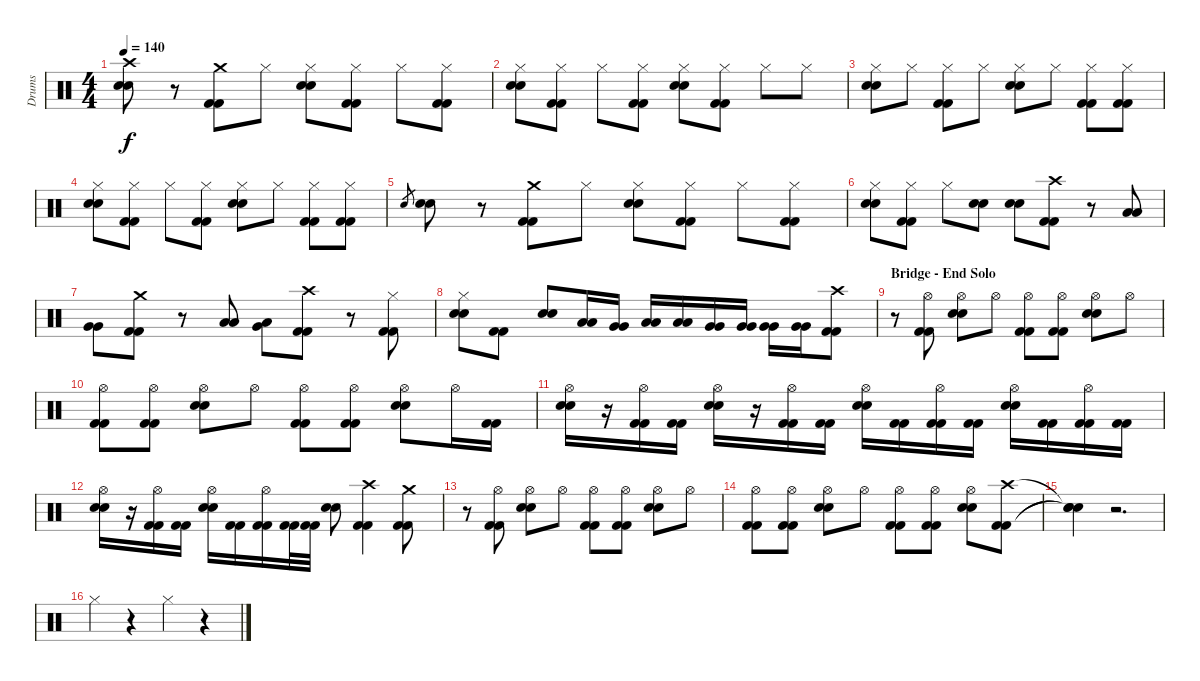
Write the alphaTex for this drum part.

\track ("Drums" "Drums") {instrument percussion}
\staff {score}
\articulation defaults
\ts (4 4)
\tempo 140
\clef neutral
\ks c
("Crash high (hit)" "Snare (hit) 2" "Snare (hit) 2").8{dy f} r.8 ("Crash medium (hit)" "Kick (hit) 2" "Kick (hit) 2").8 "Hi-Hat (closed)".8 ("Hi-Hat (closed)" "Snare (hit) 2" "Snare (hit) 2").8 ("Hi-Hat (closed)" "Kick (hit) 2" "Kick (hit) 2").8 "Hi-Hat (closed)".8 ("Hi-Hat (closed)" "Kick (hit) 2" "Kick (hit) 2").8 |
("Hi-Hat (closed)" "Snare (hit) 2" "Snare (hit) 2").8 ("Hi-Hat (closed)" "Kick (hit) 2" "Kick (hit) 2").8 "Hi-Hat (closed)".8 ("Hi-Hat (closed)" "Kick (hit) 2" "Kick (hit) 2").8 ("Hi-Hat (closed)" "Snare (hit) 2" "Snare (hit) 2").8 ("Hi-Hat (closed)" "Kick (hit) 2" "Kick (hit) 2").8 "Hi-Hat (closed)".8 "Hi-Hat (closed)".8 |
("Hi-Hat (closed)" "Snare (hit) 2" "Snare (hit) 2").8 "Hi-Hat (closed)".8 ("Hi-Hat (closed)" "Kick (hit) 2" "Kick (hit) 2").8 "Hi-Hat (closed)".8 ("Hi-Hat (closed)" "Snare (hit) 2" "Snare (hit) 2").8 "Hi-Hat (closed)".8 ("Hi-Hat (closed)" "Kick (hit) 2" "Kick (hit) 2").8 ("Hi-Hat (closed)" "Kick (hit) 2" "Kick (hit) 2").8 |
("Hi-Hat (closed)" "Snare (hit) 2" "Snare (hit) 2").8 ("Hi-Hat (closed)" "Kick (hit) 2" "Kick (hit) 2").8 "Hi-Hat (closed)".8 ("Hi-Hat (closed)" "Kick (hit) 2" "Kick (hit) 2").8 ("Hi-Hat (closed)" "Snare (hit) 2" "Snare (hit) 2").8 "Hi-Hat (closed)".8 ("Hi-Hat (closed)" "Kick (hit) 2" "Kick (hit) 2").8 ("Hi-Hat (closed)" "Kick (hit) 2" "Kick (hit) 2").8 |
"Snare (hit) 2".8{gr} ("Snare (hit) 2" "Snare (hit) 2").8 r.8 ("Crash medium (hit)" "Kick (hit) 2" "Kick (hit) 2").8 "Hi-Hat (closed)".8 ("Hi-Hat (closed)" "Snare (hit) 2" "Snare (hit) 2").8 ("Hi-Hat (closed)" "Kick (hit) 2" "Kick (hit) 2").8 "Hi-Hat (closed)".8 ("Hi-Hat (closed)" "Kick (hit) 2" "Kick (hit) 2").8 |
("Hi-Hat (closed)" "Snare (hit) 2" "Snare (hit) 2").8 ("Hi-Hat (closed)" "Kick (hit) 2" "Kick (hit) 2").8 "Hi-Hat (closed)".8 ("Snare (hit) 2" "Snare (hit) 2").8 ("Snare (hit) 2" "Snare (hit) 2").8 ("Crash high (hit)" "Kick (hit) 2" "Kick (hit) 2").8 r.8 ("Low Tom (hit)" "Low Tom (hit)").8 |
("Very Low Tom (hit)" "Very Low Tom (hit)").8 ("Crash medium (hit)" "Kick (hit) 2" "Kick (hit) 2").8 r.8 ("Low Tom (hit)" "Low Tom (hit)").8 ("Very Low Tom (hit)" "Low Tom (hit)").8 ("Crash high (hit)" "Kick (hit) 2" "Kick (hit) 2").8 r.8 ("Hi-Hat (closed)" "Kick (hit) 2" "Kick (hit) 2").8 |
("Hi-Hat (closed)" "Snare (hit) 2" "Snare (hit) 2").8 ("Kick (hit) 2" "Kick (hit) 2").8 ("Snare (hit) 2" "Snare (hit) 2").8 ("Low Tom (hit)" "Low Tom (hit)").16 ("Very Low Tom (hit)" "Very Low Tom (hit)").16 ("Low Tom (hit)" "Low Tom (hit)").16 ("Low Tom (hit)" "Low Tom (hit)").16 ("Very Low Tom (hit)" "Very Low Tom (hit)").16 ("Very Low Tom (hit)" "Very Low Tom (hit)").16 ("Very Low Tom (hit)" "Very Low Tom (hit)").16 ("Very Low Tom (hit)" "Very Low Tom (hit)").16 ("Crash high (hit)" "Kick (hit) 2" "Kick (hit) 2").8 |
\section ("" "Bridge - End Solo")
r.8 ("Hi-Hat (open)" "Kick (hit) 2" "Kick (hit) 2").8 ("Hi-Hat (open)" "Snare (hit) 2" "Snare (hit) 2").8 "Hi-Hat (open)".8 ("Hi-Hat (open)" "Kick (hit) 2" "Kick (hit) 2").8 ("Hi-Hat (open)" "Kick (hit) 2" "Kick (hit) 2").8 ("Hi-Hat (open)" "Snare (hit) 2" "Snare (hit) 2").8 "Hi-Hat (open)".8 |
("Hi-Hat (open)" "Kick (hit) 2" "Kick (hit) 2").8 ("Hi-Hat (open)" "Kick (hit) 2" "Kick (hit) 2").8 ("Hi-Hat (open)" "Snare (hit) 2" "Snare (hit) 2").8 "Hi-Hat (open)".8 ("Hi-Hat (open)" "Kick (hit) 2" "Kick (hit) 2").8 ("Hi-Hat (open)" "Kick (hit) 2" "Kick (hit) 2").8 ("Hi-Hat (open)" "Snare (hit) 2" "Snare (hit) 2").8 "Hi-Hat (open)".16 ("Kick (hit) 2" "Kick (hit) 2").16 |
("Hi-Hat (open)" "Snare (hit) 2" "Snare (hit) 2").16 r.16 ("Hi-Hat (open)" "Kick (hit) 2" "Kick (hit) 2").16 ("Kick (hit) 2" "Kick (hit) 2").16 ("Hi-Hat (open)" "Snare (hit) 2" "Snare (hit) 2").16 r.16 ("Hi-Hat (open)" "Kick (hit) 2" "Kick (hit) 2").16 ("Kick (hit) 2" "Kick (hit) 2").16 ("Hi-Hat (open)" "Snare (hit) 2" "Snare (hit) 2").16 ("Kick (hit) 2" "Kick (hit) 2").16 ("Hi-Hat (open)" "Kick (hit) 2" "Kick (hit) 2").16 ("Kick (hit) 2" "Kick (hit) 2").16 ("Hi-Hat (open)" "Snare (hit) 2" "Snare (hit) 2").16 ("Kick (hit) 2" "Kick (hit) 2").16 ("Hi-Hat (open)" "Kick (hit) 2" "Kick (hit) 2").16 ("Kick (hit) 2" "Kick (hit) 2").16 |
("Hi-Hat (open)" "Snare (hit) 2" "Snare (hit) 2").16 r.16 ("Hi-Hat (open)" "Kick (hit) 2" "Kick (hit) 2").16 ("Kick (hit) 2" "Kick (hit) 2").16 ("Hi-Hat (open)" "Snare (hit) 2" "Snare (hit) 2").16 ("Kick (hit) 2" "Kick (hit) 2").16 ("Hi-Hat (open)" "Kick (hit) 2" "Kick (hit) 2").16 ("Kick (hit) 2" "Kick (hit) 2").32 ("Kick (hit) 2" "Kick (hit) 2").32 ("Snare (hit) 2" "Snare (hit) 2").8 ("Crash high (hit)" "Kick (hit) 2" "Kick (hit) 2").4 ("Crash medium (hit)" "Kick (hit) 2" "Kick (hit) 2").8 |
r.8 ("Hi-Hat (open)" "Kick (hit) 2" "Kick (hit) 2").8 ("Hi-Hat (open)" "Snare (hit) 2" "Snare (hit) 2").8 "Hi-Hat (open)".8 ("Hi-Hat (open)" "Kick (hit) 2" "Kick (hit) 2").8 ("Hi-Hat (open)" "Kick (hit) 2" "Kick (hit) 2").8 ("Hi-Hat (open)" "Snare (hit) 2" "Snare (hit) 2").8 "Hi-Hat (open)".8 |
("Hi-Hat (open)" "Kick (hit) 2" "Kick (hit) 2").8 ("Hi-Hat (open)" "Kick (hit) 2" "Kick (hit) 2").8 ("Hi-Hat (open)" "Snare (hit) 2" "Snare (hit) 2").8 "Hi-Hat (open)".8 ("Hi-Hat (open)" "Kick (hit) 2" "Kick (hit) 2").8 ("Hi-Hat (open)" "Kick (hit) 2" "Kick (hit) 2").8 ("Hi-Hat (open)" "Snare (hit) 2" "Snare (hit) 2").8 ("Crash high (hit)" "Kick (hit) 2" "Kick (hit) 2").8 |
("Snare (hit)"{t} "Snare (hit)"{t} "Snare (hit)"{t}).4 r.2{d} |
"Hi-Hat (closed)".4 r.4 "Hi-Hat (closed)".4 r.4
